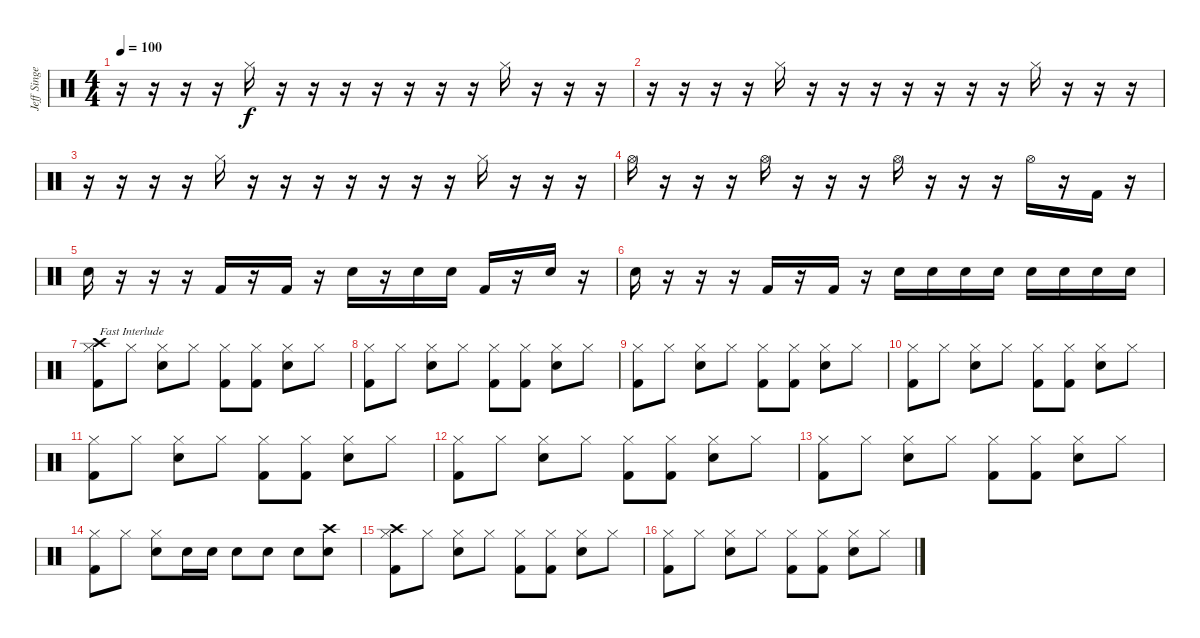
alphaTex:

\track ("Jeff Singer" "Jeff Singe") {instrument percussion}
\staff {score}
\articulation defaults
\ts (4 4)
\tempo 100
\clef neutral
\ks c
r.16{dy f} r.16 r.16 r.16 "Hi-Hat (closed)".16 r.16 r.16 r.16 r.16 r.16 r.16 r.16 "Hi-Hat (closed)".16 r.16 r.16 r.16 |
r.16 r.16 r.16 r.16 "Hi-Hat (closed)".16 r.16 r.16 r.16 r.16 r.16 r.16 r.16 "Hi-Hat (closed)".16 r.16 r.16 r.16 |
r.16 r.16 r.16 r.16 "Hi-Hat (closed)".16 r.16 r.16 r.16 r.16 r.16 r.16 r.16 "Hi-Hat (closed)".16 r.16 r.16 r.16 |
"Hi-Hat (open)".16 r.16 r.16 r.16 "Hi-Hat (open)".16 r.16 r.16 r.16 "Hi-Hat (open)".16 r.16 r.16 r.16 "Hi-Hat (open)".16 r.16 "Kick (hit) 2".16 r.16 |
"Snare (hit) 2".16 r.16 r.16 r.16 "Kick (hit) 2".16 r.16 "Kick (hit) 2".16 r.16 "Snare (hit) 2".16 r.16 "Snare (hit) 2".16 "Snare (hit) 2".16 "Kick (hit) 2".16 r.16 "Snare (hit) 2".16 r.16 |
"Snare (hit) 2".16 r.16 r.16 r.16 "Kick (hit) 2".16 r.16 "Kick (hit) 2".16 r.16 "Snare (hit) 2".16 "Snare (hit) 2".16 "Snare (hit) 2".16 "Snare (hit) 2".16 "Snare (hit) 2".16 "Snare (hit) 2".16 "Snare (hit) 2".16 "Snare (hit) 2".16 |
("Hi-Hat (closed)" "Kick (hit) 2" "Crash high (hit)").8{txt "Fast Interlude"} "Hi-Hat (closed)".8 ("Hi-Hat (closed)" "Snare (hit) 2").8 "Hi-Hat (closed)".8 ("Hi-Hat (closed)" "Kick (hit) 2").8 ("Hi-Hat (closed)" "Kick (hit) 2").8 ("Hi-Hat (closed)" "Snare (hit) 2").8 "Hi-Hat (closed)".8 |
("Hi-Hat (closed)" "Kick (hit) 2").8 "Hi-Hat (closed)".8 ("Hi-Hat (closed)" "Snare (hit) 2").8 "Hi-Hat (closed)".8 ("Hi-Hat (closed)" "Kick (hit) 2").8 ("Hi-Hat (closed)" "Kick (hit) 2").8 ("Hi-Hat (closed)" "Snare (hit) 2").8 "Hi-Hat (closed)".8 |
("Hi-Hat (closed)" "Kick (hit) 2").8 "Hi-Hat (closed)".8 ("Hi-Hat (closed)" "Snare (hit) 2").8 "Hi-Hat (closed)".8 ("Hi-Hat (closed)" "Kick (hit) 2").8 ("Hi-Hat (closed)" "Kick (hit) 2").8 ("Hi-Hat (closed)" "Snare (hit) 2").8 "Hi-Hat (closed)".8 |
("Hi-Hat (closed)" "Kick (hit) 2").8 "Hi-Hat (closed)".8 ("Hi-Hat (closed)" "Snare (hit) 2").8 "Hi-Hat (closed)".8 ("Hi-Hat (closed)" "Kick (hit) 2").8 ("Hi-Hat (closed)" "Kick (hit) 2").8 ("Hi-Hat (closed)" "Snare (hit) 2").8 "Hi-Hat (closed)".8 |
("Hi-Hat (closed)" "Kick (hit) 2").8 "Hi-Hat (closed)".8 ("Hi-Hat (closed)" "Snare (hit) 2").8 "Hi-Hat (closed)".8 ("Hi-Hat (closed)" "Kick (hit) 2").8 ("Hi-Hat (closed)" "Kick (hit) 2").8 ("Hi-Hat (closed)" "Snare (hit) 2").8 "Hi-Hat (closed)".8 |
("Hi-Hat (closed)" "Kick (hit) 2").8 "Hi-Hat (closed)".8 ("Hi-Hat (closed)" "Snare (hit) 2").8 "Hi-Hat (closed)".8 ("Hi-Hat (closed)" "Kick (hit) 2").8 ("Hi-Hat (closed)" "Kick (hit) 2").8 ("Hi-Hat (closed)" "Snare (hit) 2").8 "Hi-Hat (closed)".8 |
("Hi-Hat (closed)" "Kick (hit) 2").8 "Hi-Hat (closed)".8 ("Hi-Hat (closed)" "Snare (hit) 2").8 "Hi-Hat (closed)".8 ("Hi-Hat (closed)" "Kick (hit) 2").8 ("Hi-Hat (closed)" "Kick (hit) 2").8 ("Hi-Hat (closed)" "Snare (hit) 2").8 "Hi-Hat (closed)".8 |
("Hi-Hat (closed)" "Kick (hit) 2").8 "Hi-Hat (closed)".8 ("Hi-Hat (closed)" "Snare (hit) 2").8 "Snare (hit) 2".16 "Snare (hit) 2".16 "Snare (hit) 2".8 "Snare (hit) 2".8 "Snare (hit) 2".8 ("Snare (hit) 2" "Crash high (hit)").8 |
("Hi-Hat (closed)" "Kick (hit) 2" "Crash high (hit)").8 "Hi-Hat (closed)".8 ("Hi-Hat (closed)" "Snare (hit) 2").8 "Hi-Hat (closed)".8 ("Hi-Hat (closed)" "Kick (hit) 2").8 ("Hi-Hat (closed)" "Kick (hit) 2").8 ("Hi-Hat (closed)" "Snare (hit) 2").8 "Hi-Hat (closed)".8 |
("Hi-Hat (closed)" "Kick (hit) 2").8 "Hi-Hat (closed)".8 ("Hi-Hat (closed)" "Snare (hit) 2").8 "Hi-Hat (closed)".8 ("Hi-Hat (closed)" "Kick (hit) 2").8 ("Hi-Hat (closed)" "Kick (hit) 2").8 ("Hi-Hat (closed)" "Snare (hit) 2").8 "Hi-Hat (closed)".8
